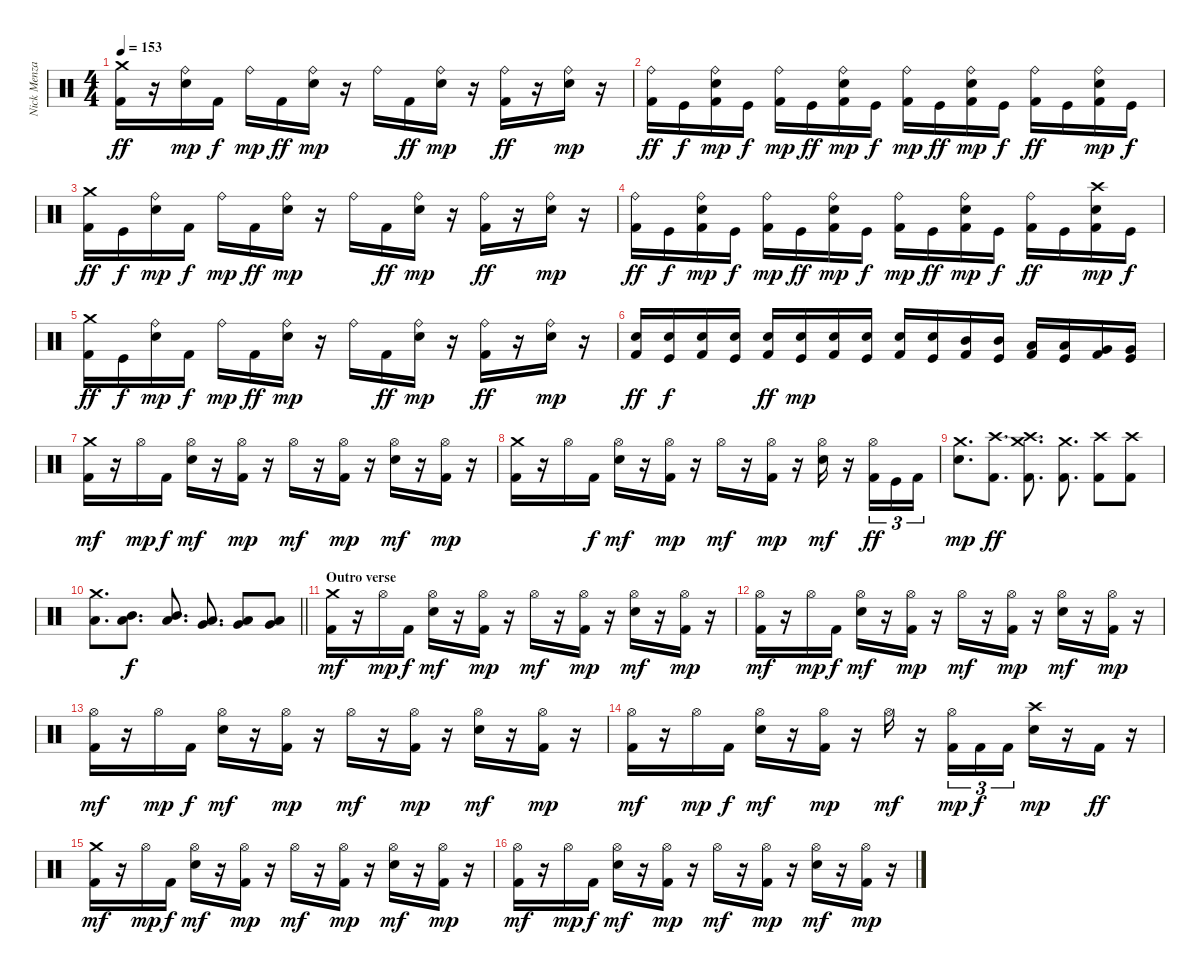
\track ("Nick Menza" "Nick Menza") {instrument percussion}
\staff {score}
\articulation defaults
\ts (4 4)
\tempo 153
\clef neutral
\ks c
("Crash medium (hit)" "Kick (hit) 2").16{dy ff} r.16 ("Ride (bell)" "Electric Snare (hit)").16{dy mp} "Kick (hit) 2".16{dy f} "Ride (bell)".16{dy mp} "Kick (hit) 2".16{dy ff} ("Ride (bell)" "Electric Snare (hit)").16{dy mp} r.16 "Ride (bell)".16 "Kick (hit) 2".16{dy ff} ("Ride (bell)" "Electric Snare (hit)").16{dy mp} r.16 ("Ride (bell)" "Kick (hit) 2").16{dy ff} r.16 ("Ride (bell)" "Electric Snare (hit)").16{dy mp} r.16 |
("Ride (bell)" "Kick (hit) 2").16{dy ff} "Kick (hit)".16{dy f} ("Ride (bell)" "Electric Snare (hit)" "Kick (hit) 2").16{dy mp} "Kick (hit)".16{dy f} ("Ride (bell)" "Kick (hit) 2").16{dy mp} "Kick (hit)".16{dy ff} ("Ride (bell)" "Electric Snare (hit)" "Kick (hit) 2").16{dy mp} "Kick (hit)".16{dy f} ("Ride (bell)" "Kick (hit) 2").16{dy mp} "Kick (hit)".16{dy ff} ("Ride (bell)" "Electric Snare (hit)" "Kick (hit) 2").16{dy mp} "Kick (hit)".16{dy f} ("Ride (bell)" "Kick (hit) 2").16{dy ff} "Kick (hit)".16 ("Ride (bell)" "Electric Snare (hit)" "Kick (hit) 2").16{dy mp} "Kick (hit)".16{dy f} |
("Crash medium (hit)" "Kick (hit) 2").16{dy ff} "Kick (hit)".16{dy f} ("Ride (bell)" "Electric Snare (hit)").16{dy mp} "Kick (hit) 2".16{dy f} "Ride (bell)".16{dy mp} "Kick (hit) 2".16{dy ff} ("Ride (bell)" "Electric Snare (hit)").16{dy mp} r.16 "Ride (bell)".16 "Kick (hit) 2".16{dy ff} ("Ride (bell)" "Electric Snare (hit)").16{dy mp} r.16 ("Ride (bell)" "Kick (hit) 2").16{dy ff} r.16 ("Ride (bell)" "Electric Snare (hit)").16{dy mp} r.16 |
("Ride (bell)" "Kick (hit) 2").16{dy ff} "Kick (hit)".16{dy f} ("Ride (bell)" "Electric Snare (hit)" "Kick (hit) 2").16{dy mp} "Kick (hit)".16{dy f} ("Ride (bell)" "Kick (hit) 2").16{dy mp} "Kick (hit)".16{dy ff} ("Ride (bell)" "Electric Snare (hit)" "Kick (hit) 2").16{dy mp} "Kick (hit)".16{dy f} ("Ride (bell)" "Kick (hit) 2").16{dy mp} "Kick (hit)".16{dy ff} ("Ride (bell)" "Electric Snare (hit)" "Kick (hit) 2").16{dy mp} "Kick (hit)".16{dy f} ("Ride (bell)" "Kick (hit) 2").16{dy ff} "Kick (hit)".16 ("Crash high (hit)" "Electric Snare (hit)" "Kick (hit) 2").16{dy mp} "Kick (hit)".16{dy f} |
("Crash medium (hit)" "Kick (hit) 2").16{dy ff} "Kick (hit)".16{dy f} ("Ride (bell)" "Electric Snare (hit)").16{dy mp} "Kick (hit) 2".16{dy f} "Ride (bell)".16{dy mp} "Kick (hit) 2".16{dy ff} ("Ride (bell)" "Electric Snare (hit)").16{dy mp} r.16 "Ride (bell)".16 "Kick (hit) 2".16{dy ff} ("Ride (bell)" "Electric Snare (hit)").16{dy mp} r.16 ("Ride (bell)" "Kick (hit) 2").16{dy ff} r.16 ("Ride (bell)" "Electric Snare (hit)").16{dy mp} r.16 |
("Electric Snare (hit)" "Kick (hit) 2").16{dy ff} ("Electric Snare (hit)" "Kick (hit)").16{dy f} ("Electric Snare (hit)" "Kick (hit) 2").16 ("Electric Snare (hit)" "Kick (hit)").16 ("Electric Snare (hit)" "Kick (hit) 2").16{dy ff} ("Electric Snare (hit)" "Kick (hit)").16{dy mp} ("Electric Snare (hit)" "Kick (hit) 2").16 ("Electric Snare (hit)" "Kick (hit)").16 ("Electric Snare (hit)" "Kick (hit) 2").16 ("Electric Snare (hit)" "Kick (hit)").16 ("Mid Tom (hit)" "Kick (hit) 2").16 ("Mid Tom (hit)" "Kick (hit)").16 ("Low Tom (hit)" "Kick (hit) 2").16 ("Low Tom (hit)" "Kick (hit)").16 ("Very Low Tom (hit)" "Kick (hit) 2").16 ("Very Low Tom (hit)" "Kick (hit)").16 |
("Crash medium (hit)" "Kick (hit) 2").16{dy mf} r.16 "Hi-Hat (open)".16{dy mp} "Kick (hit) 2".16{dy f} ("Hi-Hat (open)" "Electric Snare (hit)").16{dy mf} r.16 ("Hi-Hat (open)" "Kick (hit) 2").16{dy mp} r.16 "Hi-Hat (open)".16{dy mf} r.16 ("Hi-Hat (open)" "Kick (hit) 2").16{dy mp} r.16 ("Hi-Hat (open)" "Electric Snare (hit)").16{dy mf} r.16 ("Hi-Hat (open)" "Kick (hit) 2").16{dy mp} r.16 |
("Crash medium (hit)" "Kick (hit) 2").16 r.16 "Hi-Hat (open)".16 "Kick (hit) 2".16{dy f} ("Hi-Hat (open)" "Electric Snare (hit)").16{dy mf} r.16 ("Hi-Hat (open)" "Kick (hit) 2").16{dy mp} r.16 "Hi-Hat (open)".16{dy mf} r.16 ("Hi-Hat (open)" "Kick (hit) 2").16{dy mp} r.16 ("Hi-Hat (open)" "Electric Snare (hit)").16{dy mf} r.16 ("Hi-Hat (open)" "Kick (hit) 2").16{tu (3 2) dy ff} "Kick (hit)".16{tu (3 2)} "Kick (hit) 2".16{tu (3 2)} |
("Crash medium (hit)" "Electric Snare (hit)").8{d dy mp} ("Crash high (hit)" "Kick (hit) 2").8{d dy ff} ("Crash high (hit)" "Crash medium (hit)" "Kick (hit) 2").8{d} ("Crash medium (hit)" "Kick (hit) 2").8{d} ("Crash high (hit)" "Kick (hit) 2").8 ("Crash high (hit)" "Kick (hit) 2").8 |
\barLineRight lightlight
("Crash medium (hit)" "Low Tom (hit)").8{d} ("Mid Tom (hit)" "Low Tom (hit)").8{d dy f} ("Mid Tom (hit)" "Low Tom (hit)").8{d} ("Very Low Tom (hit)" "Low Tom (hit)").8{d} ("Very Low Tom (hit)" "Low Floor Tom (hit)").8 ("Very Low Tom (hit)" "Low Floor Tom (hit)").8 |
\section ("" "Outro verse")
("Crash medium (hit)" "Kick (hit) 2").16{dy mf} r.16 "Hi-Hat (open)".16{dy mp} "Kick (hit) 2".16{dy f} ("Hi-Hat (open)" "Electric Snare (hit)").16{dy mf} r.16 ("Hi-Hat (open)" "Kick (hit) 2").16{dy mp} r.16 "Hi-Hat (open)".16{dy mf} r.16 ("Hi-Hat (open)" "Kick (hit) 2").16{dy mp} r.16 ("Hi-Hat (open)" "Electric Snare (hit)").16{dy mf} r.16 ("Hi-Hat (open)" "Kick (hit) 2").16{dy mp} r.16 |
("Hi-Hat (open)" "Kick (hit) 2").16{dy mf} r.16 "Hi-Hat (open)".16{dy mp} "Kick (hit) 2".16{dy f} ("Hi-Hat (open)" "Electric Snare (hit)").16{dy mf} r.16 ("Hi-Hat (open)" "Kick (hit) 2").16{dy mp} r.16 "Hi-Hat (open)".16{dy mf} r.16 ("Hi-Hat (open)" "Kick (hit) 2").16{dy mp} r.16 ("Hi-Hat (open)" "Electric Snare (hit)").16{dy mf} r.16 ("Hi-Hat (open)" "Kick (hit) 2").16{dy mp} r.16 |
("Hi-Hat (open)" "Kick (hit) 2").16{dy mf} r.16 "Hi-Hat (open)".16{dy mp} "Kick (hit) 2".16{dy f} ("Hi-Hat (open)" "Electric Snare (hit)").16{dy mf} r.16 ("Hi-Hat (open)" "Kick (hit) 2").16{dy mp} r.16 "Hi-Hat (open)".16{dy mf} r.16 ("Hi-Hat (open)" "Kick (hit) 2").16{dy mp} r.16 ("Hi-Hat (open)" "Electric Snare (hit)").16{dy mf} r.16 ("Hi-Hat (open)" "Kick (hit) 2").16{dy mp} r.16 |
("Hi-Hat (open)" "Kick (hit) 2").16{dy mf} r.16 "Hi-Hat (open)".16{dy mp} "Kick (hit) 2".16{dy f} ("Hi-Hat (open)" "Electric Snare (hit)").16{dy mf} r.16 ("Hi-Hat (open)" "Kick (hit) 2").16{dy mp} r.16 "Hi-Hat (open)".16{dy mf} r.16 ("Hi-Hat (open)" "Kick (hit) 2").16{tu (3 2) dy mp} "Kick (hit) 2".16{tu (3 2) dy f} "Kick (hit) 2".16{tu (3 2)} ("Crash high (hit)" "Electric Snare (hit)").16{dy mp} r.16 "Kick (hit) 2".16{dy ff} r.16 |
("Crash medium (hit)" "Kick (hit) 2").16{dy mf} r.16 "Hi-Hat (open)".16{dy mp} "Kick (hit) 2".16{dy f} ("Hi-Hat (open)" "Electric Snare (hit)").16{dy mf} r.16 ("Hi-Hat (open)" "Kick (hit) 2").16{dy mp} r.16 "Hi-Hat (open)".16{dy mf} r.16 ("Hi-Hat (open)" "Kick (hit) 2").16{dy mp} r.16 ("Hi-Hat (open)" "Electric Snare (hit)").16{dy mf} r.16 ("Hi-Hat (open)" "Kick (hit) 2").16{dy mp} r.16 |
("Hi-Hat (open)" "Kick (hit) 2").16{dy mf} r.16 "Hi-Hat (open)".16{dy mp} "Kick (hit) 2".16{dy f} ("Hi-Hat (open)" "Electric Snare (hit)").16{dy mf} r.16 ("Hi-Hat (open)" "Kick (hit) 2").16{dy mp} r.16 "Hi-Hat (open)".16{dy mf} r.16 ("Hi-Hat (open)" "Kick (hit) 2").16{dy mp} r.16 ("Hi-Hat (open)" "Electric Snare (hit)").16{dy mf} r.16 ("Hi-Hat (open)" "Kick (hit) 2").16{dy mp} r.16
